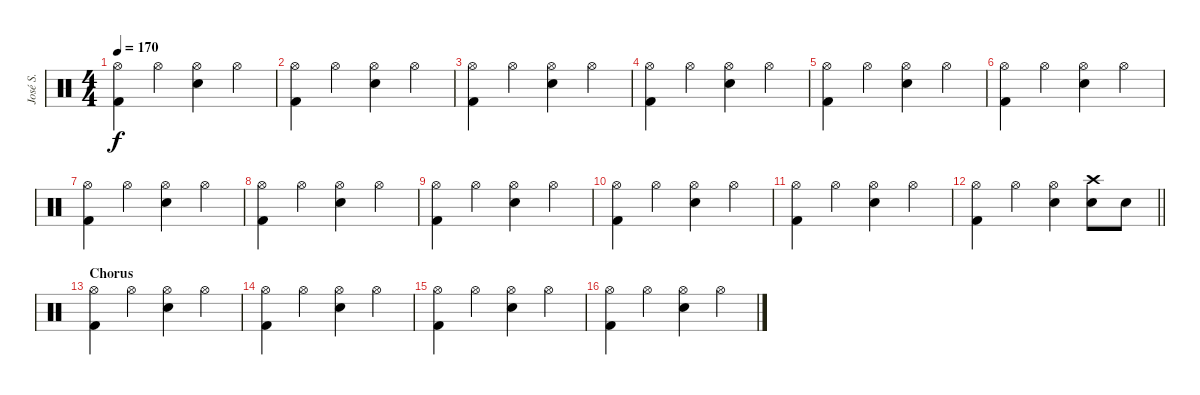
\track ("José S." "José S.") {instrument percussion}
\staff {score}
\articulation defaults
\ts (4 4)
\tempo 170
\clef neutral
\ks c
("Hi-Hat (open)" "Kick (hit) 2").4{dy f} "Hi-Hat (open)".4 ("Hi-Hat (open)" "Electric Snare (hit)").4 "Hi-Hat (open)".4 |
("Hi-Hat (open)" "Kick (hit) 2").4 "Hi-Hat (open)".4 ("Hi-Hat (open)" "Electric Snare (hit)").4 "Hi-Hat (open)".4 |
("Hi-Hat (open)" "Kick (hit) 2").4 "Hi-Hat (open)".4 ("Hi-Hat (open)" "Electric Snare (hit)").4 "Hi-Hat (open)".4 |
("Hi-Hat (open)" "Kick (hit) 2").4 "Hi-Hat (open)".4 ("Hi-Hat (open)" "Electric Snare (hit)").4 "Hi-Hat (open)".4 |
("Hi-Hat (open)" "Kick (hit) 2").4 "Hi-Hat (open)".4 ("Hi-Hat (open)" "Electric Snare (hit)").4 "Hi-Hat (open)".4 |
("Hi-Hat (open)" "Kick (hit) 2").4 "Hi-Hat (open)".4 ("Hi-Hat (open)" "Electric Snare (hit)").4 "Hi-Hat (open)".4 |
("Hi-Hat (open)" "Kick (hit) 2").4 "Hi-Hat (open)".4 ("Hi-Hat (open)" "Electric Snare (hit)").4 "Hi-Hat (open)".4 |
("Hi-Hat (open)" "Kick (hit) 2").4 "Hi-Hat (open)".4 ("Hi-Hat (open)" "Electric Snare (hit)").4 "Hi-Hat (open)".4 |
("Hi-Hat (open)" "Kick (hit) 2").4 "Hi-Hat (open)".4 ("Hi-Hat (open)" "Electric Snare (hit)").4 "Hi-Hat (open)".4 |
("Hi-Hat (open)" "Kick (hit) 2").4 "Hi-Hat (open)".4 ("Hi-Hat (open)" "Electric Snare (hit)").4 "Hi-Hat (open)".4 |
("Hi-Hat (open)" "Kick (hit) 2").4 "Hi-Hat (open)".4 ("Hi-Hat (open)" "Electric Snare (hit)").4 "Hi-Hat (open)".4 |
\barLineRight lightlight
("Hi-Hat (open)" "Kick (hit) 2").4 "Hi-Hat (open)".4 ("Hi-Hat (open)" "Electric Snare (hit)").4 ("Crash high (hit)" "Electric Snare (hit)").8 "Electric Snare (hit)".8 |
\section ("" "Chorus")
("Hi-Hat (open)" "Kick (hit) 2").4 "Hi-Hat (open)".4 ("Hi-Hat (open)" "Electric Snare (hit)").4 "Hi-Hat (open)".4 |
("Hi-Hat (open)" "Kick (hit) 2").4 "Hi-Hat (open)".4 ("Hi-Hat (open)" "Electric Snare (hit)").4 "Hi-Hat (open)".4 |
("Hi-Hat (open)" "Kick (hit) 2").4 "Hi-Hat (open)".4 ("Hi-Hat (open)" "Electric Snare (hit)").4 "Hi-Hat (open)".4 |
("Hi-Hat (open)" "Kick (hit) 2").4 "Hi-Hat (open)".4 ("Hi-Hat (open)" "Electric Snare (hit)").4 "Hi-Hat (open)".4
